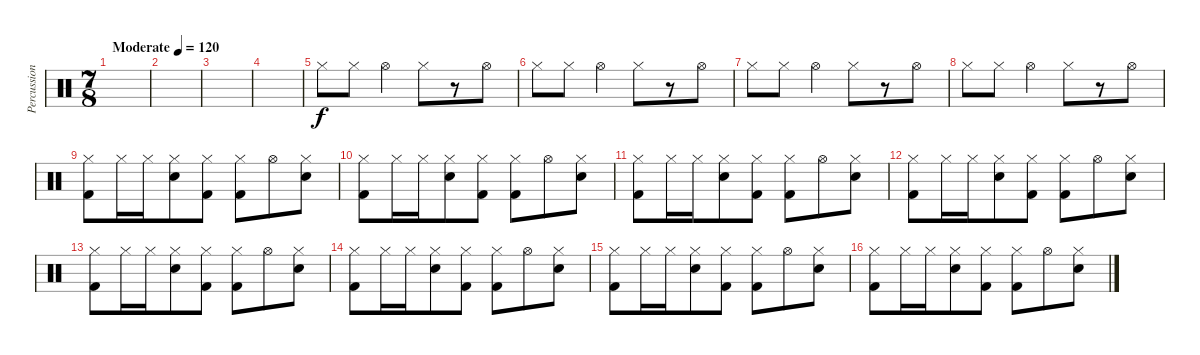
\track ("Percussion" "Percussion") {instrument percussion}
\staff {score}
\articulation defaults
\ts (7 8)
\tempo (120 "Moderate")
\clef neutral
\ks c
|
|
|
|
"Hi-Hat (closed)".8 "Hi-Hat (closed)".8 "Hi-Hat (open)".4 "Hi-Hat (closed)".8 r.8 "Hi-Hat (open)".8 |
"Hi-Hat (closed)".8 "Hi-Hat (closed)".8 "Hi-Hat (open)".4 "Hi-Hat (closed)".8 r.8 "Hi-Hat (open)".8 |
"Hi-Hat (closed)".8 "Hi-Hat (closed)".8 "Hi-Hat (open)".4 "Hi-Hat (closed)".8 r.8 "Hi-Hat (open)".8 |
"Hi-Hat (closed)".8 "Hi-Hat (closed)".8 "Hi-Hat (open)".4 "Hi-Hat (closed)".8 r.8 "Hi-Hat (open)".8 |
("Hi-Hat (closed)" "Kick (hit) 2").8 "Hi-Hat (closed)".16 "Hi-Hat (closed)".16 ("Hi-Hat (closed)" "Snare (hit) 2").8 ("Hi-Hat (closed)" "Kick (hit) 2").8 ("Hi-Hat (closed)" "Kick (hit) 2").8 "Hi-Hat (open)".8 ("Hi-Hat (closed)" "Snare (hit) 2").8 |
("Hi-Hat (closed)" "Kick (hit) 2").8 "Hi-Hat (closed)".16 "Hi-Hat (closed)".16 ("Hi-Hat (closed)" "Snare (hit) 2").8 ("Hi-Hat (closed)" "Kick (hit) 2").8 ("Hi-Hat (closed)" "Kick (hit) 2").8 "Hi-Hat (open)".8 ("Hi-Hat (closed)" "Snare (hit) 2").8 |
("Hi-Hat (closed)" "Kick (hit) 2").8 "Hi-Hat (closed)".16 "Hi-Hat (closed)".16 ("Hi-Hat (closed)" "Snare (hit) 2").8 ("Hi-Hat (closed)" "Kick (hit) 2").8 ("Hi-Hat (closed)" "Kick (hit) 2").8 "Hi-Hat (open)".8 ("Hi-Hat (closed)" "Snare (hit) 2").8 |
("Hi-Hat (closed)" "Kick (hit) 2").8 "Hi-Hat (closed)".16 "Hi-Hat (closed)".16 ("Hi-Hat (closed)" "Snare (hit) 2").8 ("Hi-Hat (closed)" "Kick (hit) 2").8 ("Hi-Hat (closed)" "Kick (hit) 2").8 "Hi-Hat (open)".8 ("Hi-Hat (closed)" "Snare (hit) 2").8 |
("Hi-Hat (closed)" "Kick (hit) 2").8 "Hi-Hat (closed)".16 "Hi-Hat (closed)".16 ("Hi-Hat (closed)" "Snare (hit) 2").8 ("Hi-Hat (closed)" "Kick (hit) 2").8 ("Hi-Hat (closed)" "Kick (hit) 2").8 "Hi-Hat (open)".8 ("Hi-Hat (closed)" "Snare (hit) 2").8 |
("Hi-Hat (closed)" "Kick (hit) 2").8 "Hi-Hat (closed)".16 "Hi-Hat (closed)".16 ("Hi-Hat (closed)" "Snare (hit) 2").8 ("Hi-Hat (closed)" "Kick (hit) 2").8 ("Hi-Hat (closed)" "Kick (hit) 2").8 "Hi-Hat (open)".8 ("Hi-Hat (closed)" "Snare (hit) 2").8 |
("Hi-Hat (closed)" "Kick (hit) 2").8 "Hi-Hat (closed)".16 "Hi-Hat (closed)".16 ("Hi-Hat (closed)" "Snare (hit) 2").8 ("Hi-Hat (closed)" "Kick (hit) 2").8 ("Hi-Hat (closed)" "Kick (hit) 2").8 "Hi-Hat (open)".8 ("Hi-Hat (closed)" "Snare (hit) 2").8 |
("Hi-Hat (closed)" "Kick (hit) 2").8 "Hi-Hat (closed)".16 "Hi-Hat (closed)".16 ("Hi-Hat (closed)" "Snare (hit) 2").8 ("Hi-Hat (closed)" "Kick (hit) 2").8 ("Hi-Hat (closed)" "Kick (hit) 2").8 "Hi-Hat (open)".8 ("Hi-Hat (closed)" "Snare (hit) 2").8
